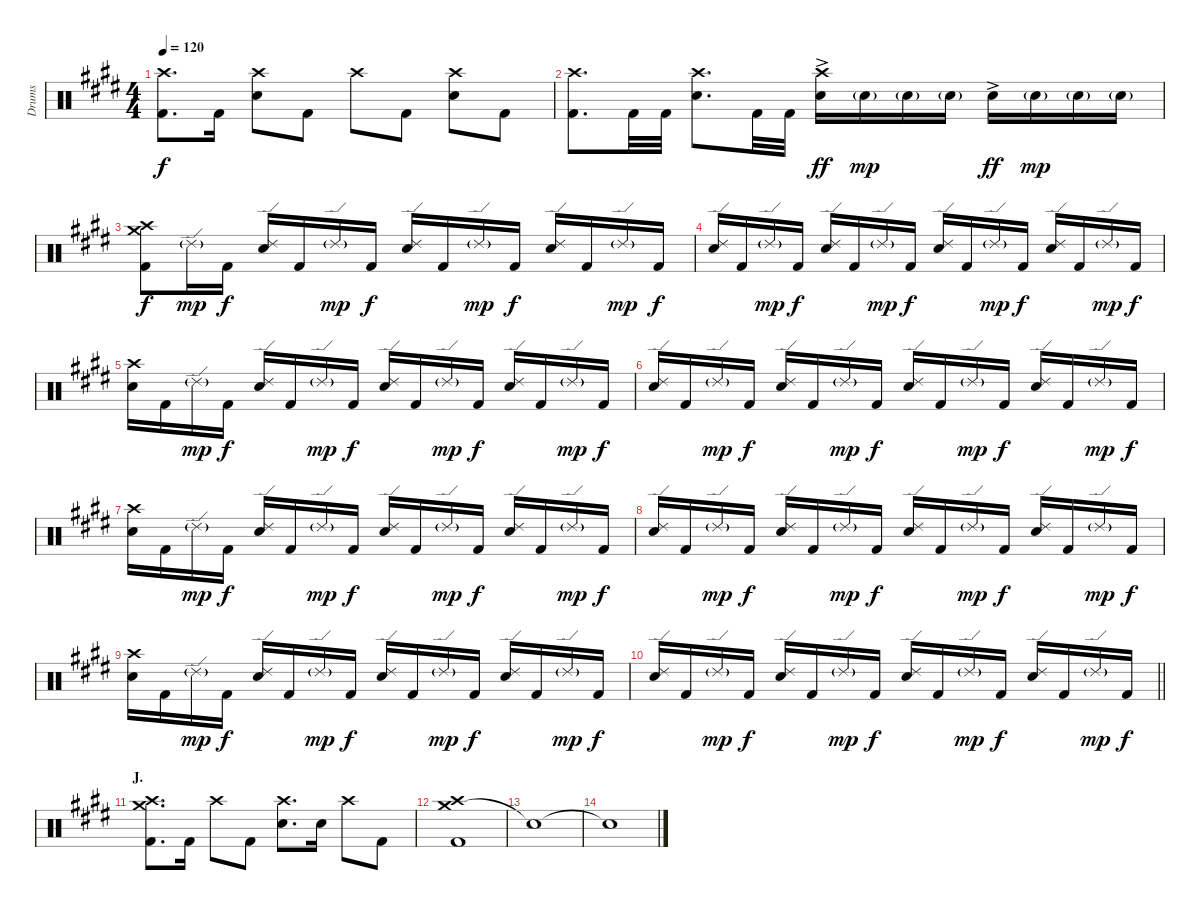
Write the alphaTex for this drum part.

\track ("Drums" "Drums") {instrument percussion}
\staff {score}
\articulation defaults
\ts (4 4)
\tempo 120
\clef neutral
\ks e
("Crash high (hit)" "Kick (hit) 2").8{d dy f} "Kick (hit) 2".16 ("Crash high (hit)" "Electric Snare (hit)").8 "Kick (hit) 2".8 "Crash high (hit)".8 "Kick (hit) 2".8 ("Crash high (hit)" "Electric Snare (hit)").8 "Kick (hit) 2".8 |
("Crash high (hit)" "Kick (hit) 2").8{d} "Kick (hit) 2".32 "Kick (hit) 2".32 ("Crash high (hit)" "Electric Snare (hit)").8{d} "Kick (hit) 2".32 "Kick (hit) 2".32 ("Crash high (hit)" "Electric Snare (hit)"{ac}).16{dy ff} "Electric Snare (hit)"{g}.16{dy mp} "Electric Snare (hit)"{g}.16 "Electric Snare (hit)"{g}.16 "Electric Snare (hit)"{ac}.16{dy ff} "Electric Snare (hit)"{g}.16{dy mp} "Electric Snare (hit)"{g}.16 "Electric Snare (hit)"{g}.16 |
("Crash medium (hit)" "Crash high (hit)" "Kick (hit) 2").8{dy f} "Ride (edge) 2"{g}.16{dy mp} "Kick (hit) 2".16{dy f} ("Ride (edge) 2" "Electric Snare (hit)").16 "Kick (hit) 2".16 "Ride (edge) 2"{g}.16{dy mp} "Kick (hit) 2".16{dy f} ("Ride (edge) 2" "Electric Snare (hit)").16 "Kick (hit) 2".16 "Ride (edge) 2"{g}.16{dy mp} "Kick (hit) 2".16{dy f} ("Ride (edge) 2" "Electric Snare (hit)").16 "Kick (hit) 2".16 "Ride (edge) 2"{g}.16{dy mp} "Kick (hit) 2".16{dy f} |
("Ride (edge) 2" "Electric Snare (hit)").16 "Kick (hit) 2".16 "Ride (edge) 2"{g}.16{dy mp} "Kick (hit) 2".16{dy f} ("Ride (edge) 2" "Electric Snare (hit)").16 "Kick (hit) 2".16 "Ride (edge) 2"{g}.16{dy mp} "Kick (hit) 2".16{dy f} ("Ride (edge) 2" "Electric Snare (hit)").16 "Kick (hit) 2".16 "Ride (edge) 2"{g}.16{dy mp} "Kick (hit) 2".16{dy f} ("Ride (edge) 2" "Electric Snare (hit)").16 "Kick (hit) 2".16 "Ride (edge) 2"{g}.16{dy mp} "Kick (hit) 2".16{dy f} |
("Crash high (hit)" "Electric Snare (hit)").16 "Kick (hit) 2".16 "Ride (edge) 2"{g}.16{dy mp} "Kick (hit) 2".16{dy f} ("Ride (edge) 2" "Electric Snare (hit)").16 "Kick (hit) 2".16 "Ride (edge) 2"{g}.16{dy mp} "Kick (hit) 2".16{dy f} ("Ride (edge) 2" "Electric Snare (hit)").16 "Kick (hit) 2".16 "Ride (edge) 2"{g}.16{dy mp} "Kick (hit) 2".16{dy f} ("Ride (edge) 2" "Electric Snare (hit)").16 "Kick (hit) 2".16 "Ride (edge) 2"{g}.16{dy mp} "Kick (hit) 2".16{dy f} |
("Ride (edge) 2" "Electric Snare (hit)").16 "Kick (hit) 2".16 "Ride (edge) 2"{g}.16{dy mp} "Kick (hit) 2".16{dy f} ("Ride (edge) 2" "Electric Snare (hit)").16 "Kick (hit) 2".16 "Ride (edge) 2"{g}.16{dy mp} "Kick (hit) 2".16{dy f} ("Ride (edge) 2" "Electric Snare (hit)").16 "Kick (hit) 2".16 "Ride (edge) 2"{g}.16{dy mp} "Kick (hit) 2".16{dy f} ("Ride (edge) 2" "Electric Snare (hit)").16 "Kick (hit) 2".16 "Ride (edge) 2"{g}.16{dy mp} "Kick (hit) 2".16{dy f} |
("Crash high (hit)" "Electric Snare (hit)").16 "Kick (hit) 2".16 "Ride (edge) 2"{g}.16{dy mp} "Kick (hit) 2".16{dy f} ("Ride (edge) 2" "Electric Snare (hit)").16 "Kick (hit) 2".16 "Ride (edge) 2"{g}.16{dy mp} "Kick (hit) 2".16{dy f} ("Ride (edge) 2" "Electric Snare (hit)").16 "Kick (hit) 2".16 "Ride (edge) 2"{g}.16{dy mp} "Kick (hit) 2".16{dy f} ("Ride (edge) 2" "Electric Snare (hit)").16 "Kick (hit) 2".16 "Ride (edge) 2"{g}.16{dy mp} "Kick (hit) 2".16{dy f} |
("Ride (edge) 2" "Electric Snare (hit)").16 "Kick (hit) 2".16 "Ride (edge) 2"{g}.16{dy mp} "Kick (hit) 2".16{dy f} ("Ride (edge) 2" "Electric Snare (hit)").16 "Kick (hit) 2".16 "Ride (edge) 2"{g}.16{dy mp} "Kick (hit) 2".16{dy f} ("Ride (edge) 2" "Electric Snare (hit)").16 "Kick (hit) 2".16 "Ride (edge) 2"{g}.16{dy mp} "Kick (hit) 2".16{dy f} ("Ride (edge) 2" "Electric Snare (hit)").16 "Kick (hit) 2".16 "Ride (edge) 2"{g}.16{dy mp} "Kick (hit) 2".16{dy f} |
("Crash high (hit)" "Electric Snare (hit)").16 "Kick (hit) 2".16 "Ride (edge) 2"{g}.16{dy mp} "Kick (hit) 2".16{dy f} ("Ride (edge) 2" "Electric Snare (hit)").16 "Kick (hit) 2".16 "Ride (edge) 2"{g}.16{dy mp} "Kick (hit) 2".16{dy f} ("Ride (edge) 2" "Electric Snare (hit)").16 "Kick (hit) 2".16 "Ride (edge) 2"{g}.16{dy mp} "Kick (hit) 2".16{dy f} ("Ride (edge) 2" "Electric Snare (hit)").16 "Kick (hit) 2".16 "Ride (edge) 2"{g}.16{dy mp} "Kick (hit) 2".16{dy f} |
\barLineRight lightlight
("Ride (edge) 2" "Electric Snare (hit)").16 "Kick (hit) 2".16 "Ride (edge) 2"{g}.16{dy mp} "Kick (hit) 2".16{dy f} ("Ride (edge) 2" "Electric Snare (hit)").16 "Kick (hit) 2".16 "Ride (edge) 2"{g}.16{dy mp} "Kick (hit) 2".16{dy f} ("Ride (edge) 2" "Electric Snare (hit)").16 "Kick (hit) 2".16 "Ride (edge) 2"{g}.16{dy mp} "Kick (hit) 2".16{dy f} ("Ride (edge) 2" "Electric Snare (hit)").16 "Kick (hit) 2".16 "Ride (edge) 2"{g}.16{dy mp} "Kick (hit) 2".16{dy f} |
\section ("" "J.")
("Crash medium (hit)" "Crash high (hit)" "Kick (hit) 2").8{d} "Kick (hit) 2".16 "Crash high (hit)".8 "Kick (hit) 2".8 ("Crash high (hit)" "Electric Snare (hit)").8{d} "Electric Snare (hit)".16 "Crash high (hit)".8 "Kick (hit) 2".8 |
("Crash medium (hit)" "Crash high (hit)" "Kick (hit) 2").1 |
"Snare (hit)"{t}.1 |
"Snare (hit)"{t}.1
